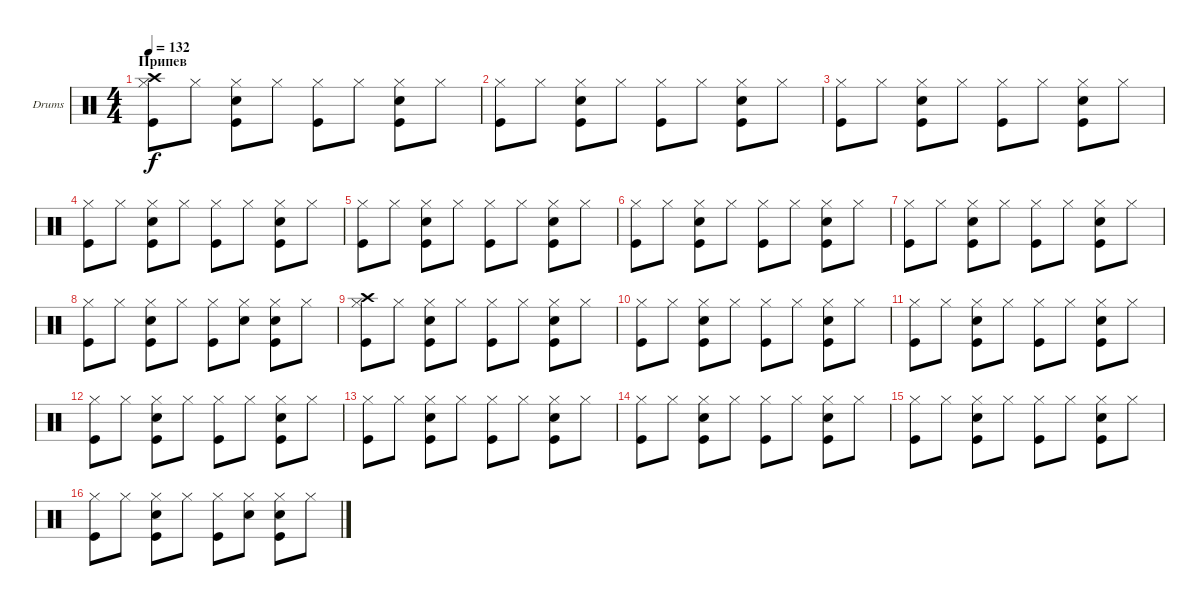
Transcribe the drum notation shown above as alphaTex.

\defaultSystemsLayout 4
\bracketExtendMode groupsimilarinstruments
\firstSystemTrackNameOrientation horizontal
\otherSystemsTrackNameOrientation horizontal
\track ("Drumkit" "Drums") {instrument percussion}
\staff {score}
\articulation defaults
\ts (4 4)
\section ("" "Припев")
\tempo 132
\clef neutral
\ks c
("Hi-Hat (closed)" "Kick (hit)" "Crash high (hit)").8{dy f} "Hi-Hat (closed)".8 ("Hi-Hat (closed)" "Kick (hit)" "Snare (hit) 2").8 "Hi-Hat (closed)".8 ("Hi-Hat (closed)" "Kick (hit)").8 "Hi-Hat (closed)".8 ("Hi-Hat (closed)" "Kick (hit)" "Snare (hit) 2").8 "Hi-Hat (closed)".8 |
("Hi-Hat (closed)" "Kick (hit)").8 "Hi-Hat (closed)".8 ("Hi-Hat (closed)" "Kick (hit)" "Snare (hit) 2").8 "Hi-Hat (closed)".8 ("Hi-Hat (closed)" "Kick (hit)").8 "Hi-Hat (closed)".8 ("Hi-Hat (closed)" "Kick (hit)" "Snare (hit) 2").8 "Hi-Hat (closed)".8 |
("Hi-Hat (closed)" "Kick (hit)").8 "Hi-Hat (closed)".8 ("Hi-Hat (closed)" "Kick (hit)" "Snare (hit) 2").8 "Hi-Hat (closed)".8 ("Hi-Hat (closed)" "Kick (hit)").8 "Hi-Hat (closed)".8 ("Hi-Hat (closed)" "Kick (hit)" "Snare (hit) 2").8 "Hi-Hat (closed)".8 |
("Hi-Hat (closed)" "Kick (hit)").8 "Hi-Hat (closed)".8 ("Hi-Hat (closed)" "Kick (hit)" "Snare (hit) 2").8 "Hi-Hat (closed)".8 ("Hi-Hat (closed)" "Kick (hit)").8 "Hi-Hat (closed)".8 ("Hi-Hat (closed)" "Kick (hit)" "Snare (hit) 2").8 "Hi-Hat (closed)".8 |
("Hi-Hat (closed)" "Kick (hit)").8 "Hi-Hat (closed)".8 ("Hi-Hat (closed)" "Kick (hit)" "Snare (hit) 2").8 "Hi-Hat (closed)".8 ("Hi-Hat (closed)" "Kick (hit)").8 "Hi-Hat (closed)".8 ("Hi-Hat (closed)" "Kick (hit)" "Snare (hit) 2").8 "Hi-Hat (closed)".8 |
("Hi-Hat (closed)" "Kick (hit)").8 "Hi-Hat (closed)".8 ("Hi-Hat (closed)" "Kick (hit)" "Snare (hit) 2").8 "Hi-Hat (closed)".8 ("Hi-Hat (closed)" "Kick (hit)").8 "Hi-Hat (closed)".8 ("Hi-Hat (closed)" "Kick (hit)" "Snare (hit) 2").8 "Hi-Hat (closed)".8 |
("Hi-Hat (closed)" "Kick (hit)").8 "Hi-Hat (closed)".8 ("Hi-Hat (closed)" "Kick (hit)" "Snare (hit) 2").8 "Hi-Hat (closed)".8 ("Hi-Hat (closed)" "Kick (hit)").8 "Hi-Hat (closed)".8 ("Hi-Hat (closed)" "Kick (hit)" "Snare (hit) 2").8 "Hi-Hat (closed)".8 |
("Hi-Hat (closed)" "Kick (hit)").8 "Hi-Hat (closed)".8 ("Hi-Hat (closed)" "Kick (hit)" "Snare (hit) 2").8 "Hi-Hat (closed)".8 ("Hi-Hat (closed)" "Kick (hit)").8 ("Hi-Hat (closed)" "Snare (hit) 2").8 ("Hi-Hat (closed)" "Kick (hit)" "Snare (hit) 2").8 "Hi-Hat (closed)".8 |
("Hi-Hat (closed)" "Kick (hit)" "Crash high (hit)").8 "Hi-Hat (closed)".8 ("Hi-Hat (closed)" "Kick (hit)" "Snare (hit) 2").8 "Hi-Hat (closed)".8 ("Hi-Hat (closed)" "Kick (hit)").8 "Hi-Hat (closed)".8 ("Hi-Hat (closed)" "Kick (hit)" "Snare (hit) 2").8 "Hi-Hat (closed)".8 |
("Hi-Hat (closed)" "Kick (hit)").8 "Hi-Hat (closed)".8 ("Hi-Hat (closed)" "Kick (hit)" "Snare (hit) 2").8 "Hi-Hat (closed)".8 ("Hi-Hat (closed)" "Kick (hit)").8 "Hi-Hat (closed)".8 ("Hi-Hat (closed)" "Kick (hit)" "Snare (hit) 2").8 "Hi-Hat (closed)".8 |
("Hi-Hat (closed)" "Kick (hit)").8 "Hi-Hat (closed)".8 ("Hi-Hat (closed)" "Kick (hit)" "Snare (hit) 2").8 "Hi-Hat (closed)".8 ("Hi-Hat (closed)" "Kick (hit)").8 "Hi-Hat (closed)".8 ("Hi-Hat (closed)" "Kick (hit)" "Snare (hit) 2").8 "Hi-Hat (closed)".8 |
("Hi-Hat (closed)" "Kick (hit)").8 "Hi-Hat (closed)".8 ("Hi-Hat (closed)" "Kick (hit)" "Snare (hit) 2").8 "Hi-Hat (closed)".8 ("Hi-Hat (closed)" "Kick (hit)").8 "Hi-Hat (closed)".8 ("Hi-Hat (closed)" "Kick (hit)" "Snare (hit) 2").8 "Hi-Hat (closed)".8 |
("Hi-Hat (closed)" "Kick (hit)").8 "Hi-Hat (closed)".8 ("Hi-Hat (closed)" "Kick (hit)" "Snare (hit) 2").8 "Hi-Hat (closed)".8 ("Hi-Hat (closed)" "Kick (hit)").8 "Hi-Hat (closed)".8 ("Hi-Hat (closed)" "Kick (hit)" "Snare (hit) 2").8 "Hi-Hat (closed)".8 |
("Hi-Hat (closed)" "Kick (hit)").8 "Hi-Hat (closed)".8 ("Hi-Hat (closed)" "Kick (hit)" "Snare (hit) 2").8 "Hi-Hat (closed)".8 ("Hi-Hat (closed)" "Kick (hit)").8 "Hi-Hat (closed)".8 ("Hi-Hat (closed)" "Kick (hit)" "Snare (hit) 2").8 "Hi-Hat (closed)".8 |
("Hi-Hat (closed)" "Kick (hit)").8 "Hi-Hat (closed)".8 ("Hi-Hat (closed)" "Kick (hit)" "Snare (hit) 2").8 "Hi-Hat (closed)".8 ("Hi-Hat (closed)" "Kick (hit)").8 "Hi-Hat (closed)".8 ("Hi-Hat (closed)" "Kick (hit)" "Snare (hit) 2").8 "Hi-Hat (closed)".8 |
("Hi-Hat (closed)" "Kick (hit)").8 "Hi-Hat (closed)".8 ("Hi-Hat (closed)" "Kick (hit)" "Snare (hit) 2").8 "Hi-Hat (closed)".8 ("Hi-Hat (closed)" "Kick (hit)").8 ("Hi-Hat (closed)" "Snare (hit) 2").8 ("Hi-Hat (closed)" "Kick (hit)" "Snare (hit) 2").8 "Hi-Hat (closed)".8
